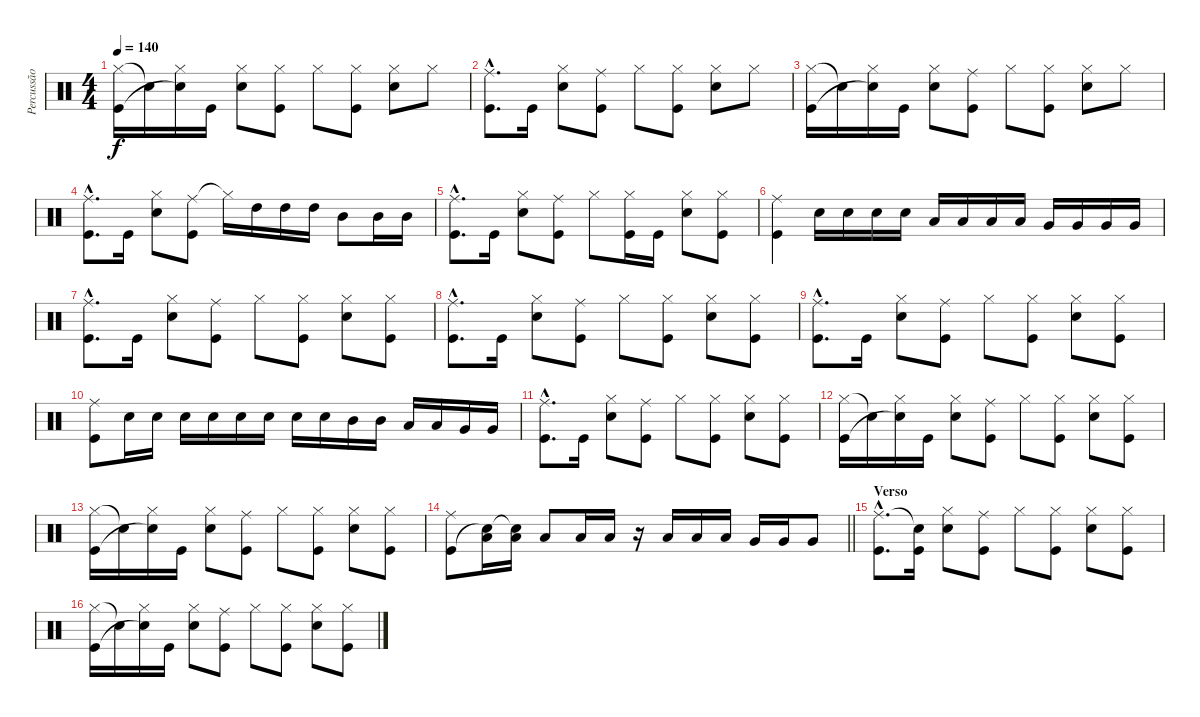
\track ("Percussão" "Percussão") {instrument percussion}
\staff {score}
\articulation defaults
\ts (4 4)
\tempo 140
\clef neutral
\ks c
("Hi-Hat (closed)" "Kick (hit)").16{dy f} "Snare (hit)"{t}.16 ("Hi-Hat (closed)" "Snare (hit)"{t}).16 "Kick (hit)".16 ("Hi-Hat (closed)" "Snare (hit) 2").8 ("Hi-Hat (closed)" "Kick (hit)").8 "Hi-Hat (closed)".8 ("Hi-Hat (closed)" "Kick (hit)").8 ("Hi-Hat (closed)" "Snare (hit) 2").8 "Hi-Hat (closed)".8 |
("Ride (middle)"{hac} "Kick (hit)"{hac}).8{d} "Kick (hit)".16 ("Hi-Hat (closed)" "Snare (hit) 2").8 ("Ride (middle)" "Kick (hit)").8 "Hi-Hat (closed)".8 ("Hi-Hat (closed)" "Kick (hit)").8 ("Hi-Hat (closed)" "Snare (hit) 2").8 "Hi-Hat (closed)".8 |
("Hi-Hat (closed)" "Kick (hit)").16 "Snare (hit)"{t}.16 ("Hi-Hat (closed)" "Snare (hit)"{t}).16 "Kick (hit)".16 ("Hi-Hat (closed)" "Snare (hit) 2").8 ("Ride (middle)" "Kick (hit)").8 "Hi-Hat (closed)".8 ("Hi-Hat (closed)" "Kick (hit)").8 ("Hi-Hat (closed)" "Snare (hit) 2").8 "Hi-Hat (closed)".8 |
("Ride (middle)"{hac} "Kick (hit)"{hac}).8{d} "Kick (hit)".16 ("Hi-Hat (closed)" "Snare (hit) 2").8 ("Ride (middle)" "Kick (hit)").8 "Hi-Hat (closed)"{t}.16 "High Tom (hit)".16 "High Tom (hit)".16 "High Tom (hit)".16 "Mid Tom (hit)".8 "Mid Tom (hit)".16 "Mid Tom (hit)".16 |
("Ride (middle)"{hac} "Kick (hit)"{hac}).8{d} "Kick (hit)".16 ("Hi-Hat (closed)" "Snare (hit) 2").8 ("Ride (middle)" "Kick (hit)").8 "Hi-Hat (closed)".8 ("Hi-Hat (closed)" "Kick (hit)").16 "Kick (hit)".16 ("Hi-Hat (closed)" "Snare (hit) 2").8 ("Hi-Hat (closed)" "Kick (hit)").8 |
("Ride (middle)" "Kick (hit)").4 "Snare (hit) 2".16 "Snare (hit) 2".16 "Snare (hit) 2".16 "Snare (hit) 2".16 "Low Tom (hit)".16 "Low Tom (hit)".16 "Low Tom (hit)".16 "Low Tom (hit)".16 "Very Low Tom (hit)".16 "Very Low Tom (hit)".16 "Very Low Tom (hit)".16 "Very Low Tom (hit)".16 |
("Ride (middle)"{hac} "Kick (hit)"{hac}).8{d} "Kick (hit)".16 ("Hi-Hat (closed)" "Snare (hit) 2").8 ("Ride (middle)" "Kick (hit)").8 "Hi-Hat (closed)".8 ("Hi-Hat (closed)" "Kick (hit)").8 ("Hi-Hat (closed)" "Snare (hit) 2").8 ("Hi-Hat (closed)" "Kick (hit)").8 |
("Ride (middle)"{hac} "Kick (hit)"{hac}).8{d} "Kick (hit)".16 ("Hi-Hat (closed)" "Snare (hit) 2").8 ("Ride (middle)" "Kick (hit)").8 "Hi-Hat (closed)".8 ("Hi-Hat (closed)" "Kick (hit)").8 ("Hi-Hat (closed)" "Snare (hit) 2").8 ("Hi-Hat (closed)" "Kick (hit)").8 |
("Ride (middle)"{hac} "Kick (hit)"{hac}).8{d} "Kick (hit)".16 ("Hi-Hat (closed)" "Snare (hit) 2").8 ("Ride (middle)" "Kick (hit)").8 "Hi-Hat (closed)".8 ("Hi-Hat (closed)" "Kick (hit)").8 ("Hi-Hat (closed)" "Snare (hit) 2").8 ("Hi-Hat (closed)" "Kick (hit)").8 |
("Ride (middle)" "Kick (hit)").8 "Snare (hit) 2".16 "Snare (hit) 2".16 "Snare (hit) 2".16 "Snare (hit) 2".16 "Snare (hit) 2".16 "Snare (hit) 2".16 "Snare (hit) 2".16 "Snare (hit) 2".16 "Mid Tom (hit)".16 "Mid Tom (hit)".16 "Low Tom (hit)".16 "Low Tom (hit)".16 "Very Low Tom (hit)".16 "Very Low Tom (hit)".16 |
("Ride (middle)"{hac} "Kick (hit)"{hac}).8{d} "Kick (hit)".16 ("Hi-Hat (closed)" "Snare (hit) 2").8 ("Ride (middle)" "Kick (hit)").8 "Hi-Hat (closed)".8 ("Hi-Hat (closed)" "Kick (hit)").8 ("Hi-Hat (closed)" "Snare (hit) 2").8 ("Hi-Hat (closed)" "Kick (hit)").8 |
("Hi-Hat (closed)" "Kick (hit)").16 "Snare (hit)"{t}.16 ("Hi-Hat (closed)" "Snare (hit)"{t}).16 "Kick (hit)".16 ("Hi-Hat (closed)" "Snare (hit) 2").8 ("Ride (middle)" "Kick (hit)").8 "Hi-Hat (closed)".8 ("Hi-Hat (closed)" "Kick (hit)").8 ("Hi-Hat (closed)" "Snare (hit) 2").8 ("Hi-Hat (closed)" "Kick (hit)").8 |
("Hi-Hat (closed)" "Kick (hit)").16 "Snare (hit)"{t}.16 ("Hi-Hat (closed)" "Snare (hit)"{t}).16 "Kick (hit)".16 ("Hi-Hat (closed)" "Snare (hit) 2").8 ("Ride (middle)" "Kick (hit)").8 "Hi-Hat (closed)".8 ("Hi-Hat (closed)" "Kick (hit)").8 ("Hi-Hat (closed)" "Snare (hit) 2").8 ("Hi-Hat (closed)" "Kick (hit)").8 |
\barLineRight lightlight
("Ride (middle)" "Kick (hit)").8 ("Low Tom (hit)" "Snare (hit)"{t}).16 ("Low Tom (hit)" "Snare (hit)"{t}).16 "Low Tom (hit)".8 "Low Tom (hit)".16 "Low Tom (hit)".16 r.16 "Low Tom (hit)".16 "Low Tom (hit)".16 "Low Tom (hit)".16 "Very Low Tom (hit)".16 "Very Low Tom (hit)".16 "Very Low Tom (hit)".8 |
\section ("" "Verso")
("Ride (middle)"{hac} "Kick (hit)"{hac}).8{d} ("Snare (hit)"{t} "Kick (hit)").16 ("Hi-Hat (closed)" "Snare (hit) 2").8 ("Ride (middle)" "Kick (hit)").8 "Hi-Hat (closed)".8 ("Hi-Hat (closed)" "Kick (hit)").8 ("Hi-Hat (closed)" "Snare (hit) 2").8 ("Hi-Hat (closed)" "Kick (hit)").8 |
("Hi-Hat (closed)" "Kick (hit)").16 "Snare (hit)"{t}.16 ("Hi-Hat (closed)" "Snare (hit)"{t}).16 "Kick (hit)".16 ("Hi-Hat (closed)" "Snare (hit) 2").8 ("Ride (middle)" "Kick (hit)").8 "Hi-Hat (closed)".8 ("Hi-Hat (closed)" "Kick (hit)").8 ("Hi-Hat (closed)" "Snare (hit) 2").8 ("Hi-Hat (closed)" "Kick (hit)").8
